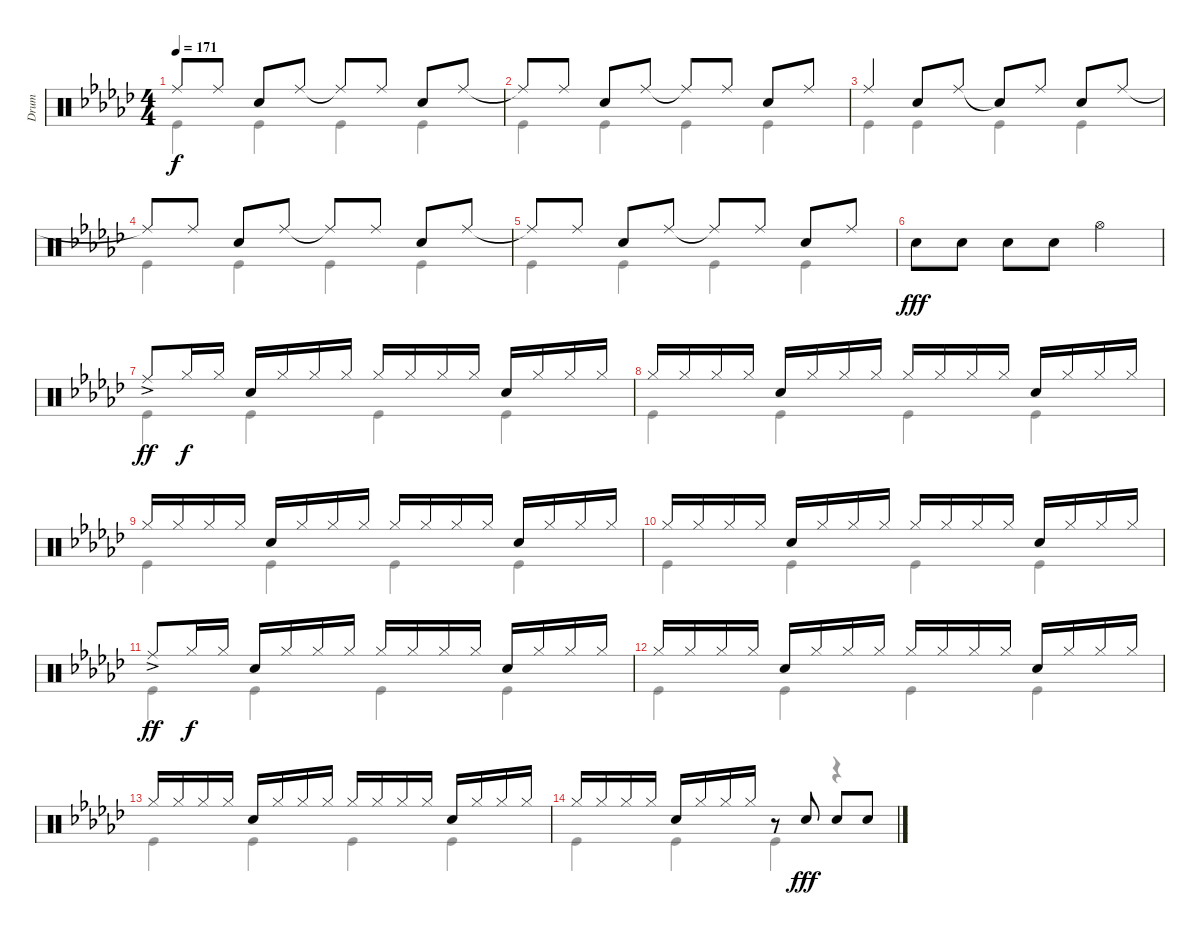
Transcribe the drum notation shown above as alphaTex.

\track ("Drum" "Drum") {instrument percussion}
\staff {score}
\articulation defaults
\voice
\ts (4 4)
\tempo 171
\clef neutral
\ks gb "Ride (middle)"{t}.8{dy f} "Ride (middle)".8 "Snare (hit) 2".8 "Ride (middle)".8 "Ride (middle)"{t}.8 "Ride (middle)".8 "Snare (hit) 2".8 "Ride (middle)".8
|
"Ride (middle)"{t}.8 "Ride (middle)".8 "Snare (hit) 2".8 "Ride (middle)".8 "Ride (middle)"{t}.8 "Ride (middle)".8 "Snare (hit) 2".8 "Ride (middle)".8 |
"Ride (middle)".4 "Snare (hit) 2".8 "Ride (middle)".8 "Snare (hit)"{t}.8 "Ride (middle)".8 "Snare (hit) 2".8 "Ride (middle)".8 |
"Ride (middle)"{t}.8 "Ride (middle)".8 "Snare (hit) 2".8 "Ride (middle)".8 "Ride (middle)"{t}.8 "Ride (middle)".8 "Snare (hit) 2".8 "Ride (middle)".8 |
"Ride (middle)"{t}.8 "Ride (middle)".8 "Snare (hit) 2".8 "Ride (middle)".8 "Ride (middle)"{t}.8 "Ride (middle)".8 "Snare (hit) 2".8 "Ride (middle)".8 |
"Snare (hit) 2".8{dy fff} "Snare (hit) 2".8 "Snare (hit) 2".8 "Snare (hit) 2".8 "Hi-Hat (open)".2 |
"Ride (middle)"{ac}.8{dy ff} "Hi-Hat (closed)".16{dy f} "Hi-Hat (closed)".16 "Snare (hit) 2".16 "Hi-Hat (closed)".16 "Hi-Hat (closed)".16 "Hi-Hat (closed)".16 "Hi-Hat (closed)".16 "Hi-Hat (closed)".16 "Hi-Hat (closed)".16 "Hi-Hat (closed)".16 "Snare (hit) 2".16 "Hi-Hat (closed)".16 "Hi-Hat (closed)".16 "Hi-Hat (closed)".16 |
"Hi-Hat (closed)".16 "Hi-Hat (closed)".16 "Hi-Hat (closed)".16 "Hi-Hat (closed)".16 "Snare (hit) 2".16 "Hi-Hat (closed)".16 "Hi-Hat (closed)".16 "Hi-Hat (closed)".16 "Hi-Hat (closed)".16 "Hi-Hat (closed)".16 "Hi-Hat (closed)".16 "Hi-Hat (closed)".16 "Snare (hit) 2".16 "Hi-Hat (closed)".16 "Hi-Hat (closed)".16 "Hi-Hat (closed)".16 |
"Hi-Hat (closed)".16 "Hi-Hat (closed)".16 "Hi-Hat (closed)".16 "Hi-Hat (closed)".16 "Snare (hit) 2".16 "Hi-Hat (closed)".16 "Hi-Hat (closed)".16 "Hi-Hat (closed)".16 "Hi-Hat (closed)".16 "Hi-Hat (closed)".16 "Hi-Hat (closed)".16 "Hi-Hat (closed)".16 "Snare (hit) 2".16 "Hi-Hat (closed)".16 "Hi-Hat (closed)".16 "Hi-Hat (closed)".16 |
"Hi-Hat (closed)".16 "Hi-Hat (closed)".16 "Hi-Hat (closed)".16 "Hi-Hat (closed)".16 "Snare (hit) 2".16 "Hi-Hat (closed)".16 "Hi-Hat (closed)".16 "Hi-Hat (closed)".16 "Hi-Hat (closed)".16 "Hi-Hat (closed)".16 "Hi-Hat (closed)".16 "Hi-Hat (closed)".16 "Snare (hit) 2".16 "Hi-Hat (closed)".16 "Hi-Hat (closed)".16 "Hi-Hat (closed)".16 |
"Ride (middle)"{ac}.8{dy ff} "Hi-Hat (closed)".16{dy f} "Hi-Hat (closed)".16 "Snare (hit) 2".16 "Hi-Hat (closed)".16 "Hi-Hat (closed)".16 "Hi-Hat (closed)".16 "Hi-Hat (closed)".16 "Hi-Hat (closed)".16 "Hi-Hat (closed)".16 "Hi-Hat (closed)".16 "Snare (hit) 2".16 "Hi-Hat (closed)".16 "Hi-Hat (closed)".16 "Hi-Hat (closed)".16 |
"Hi-Hat (closed)".16 "Hi-Hat (closed)".16 "Hi-Hat (closed)".16 "Hi-Hat (closed)".16 "Snare (hit) 2".16 "Hi-Hat (closed)".16 "Hi-Hat (closed)".16 "Hi-Hat (closed)".16 "Hi-Hat (closed)".16 "Hi-Hat (closed)".16 "Hi-Hat (closed)".16 "Hi-Hat (closed)".16 "Snare (hit) 2".16 "Hi-Hat (closed)".16 "Hi-Hat (closed)".16 "Hi-Hat (closed)".16 |
"Hi-Hat (closed)".16 "Hi-Hat (closed)".16 "Hi-Hat (closed)".16 "Hi-Hat (closed)".16 "Snare (hit) 2".16 "Hi-Hat (closed)".16 "Hi-Hat (closed)".16 "Hi-Hat (closed)".16 "Hi-Hat (closed)".16 "Hi-Hat (closed)".16 "Hi-Hat (closed)".16 "Hi-Hat (closed)".16 "Snare (hit) 2".16 "Hi-Hat (closed)".16 "Hi-Hat (closed)".16 "Hi-Hat (closed)".16 |
"Hi-Hat (closed)".16 "Hi-Hat (closed)".16 "Hi-Hat (closed)".16 "Hi-Hat (closed)".16 "Snare (hit) 2".16 "Hi-Hat (closed)".16 "Hi-Hat (closed)".16 "Hi-Hat (closed)".16 r.8 "Snare (hit) 2".8{dy fff} "Snare (hit) 2".8 "Snare (hit) 2".8
\voice
\clef neutral
\ottava regular
\simile none
\ks gb "Kick (hit)".4{dy f} "Kick (hit)".4 "Kick (hit)".4 "Kick (hit)".4
|
"Kick (hit)".4 "Kick (hit)".4 "Kick (hit)".4 "Kick (hit)".4 |
"Kick (hit)".4 "Kick (hit)".4 "Kick (hit)".4 "Kick (hit)".4 |
"Kick (hit)".4 "Kick (hit)".4 "Kick (hit)".4 "Kick (hit)".4 |
"Kick (hit)".4 "Kick (hit)".4 "Kick (hit)".4 "Kick (hit)".4 |
|
"Kick (hit)".4 "Kick (hit)".4 "Kick (hit)".4 "Kick (hit)".4 |
"Kick (hit)".4 "Kick (hit)".4 "Kick (hit)".4 "Kick (hit)".4 |
"Kick (hit)".4 "Kick (hit)".4 "Kick (hit)".4 "Kick (hit)".4 |
"Kick (hit)".4 "Kick (hit)".4 "Kick (hit)".4 "Kick (hit)".4 |
"Kick (hit)".4 "Kick (hit)".4 "Kick (hit)".4 "Kick (hit)".4 |
"Kick (hit)".4 "Kick (hit)".4 "Kick (hit)".4 "Kick (hit)".4 |
"Kick (hit)".4 "Kick (hit)".4 "Kick (hit)".4 "Kick (hit)".4 |
"Kick (hit)".4 "Kick (hit)".4 "Kick (hit)".4 r.4
